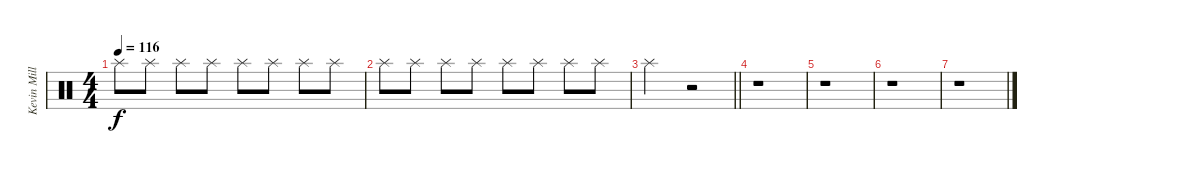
\track ("Kevin Miller (Drums)" "Kevin Mill") {instrument percussion}
\staff {score}
\articulation defaults
\ts (4 4)
\tempo 116
\clef neutral
\ks c "Splash (hit)".8{dy f} "Splash (hit)".8 "Splash (hit)".8 "Splash (hit)".8 "Splash (hit)".8 "Splash (hit)".8 "Splash (hit)".8 "Splash (hit)".8
|
"Splash (hit)".8 "Splash (hit)".8 "Splash (hit)".8 "Splash (hit)".8 "Splash (hit)".8 "Splash (hit)".8 "Splash (hit)".8 "Splash (hit)".8 |
\barLineRight lightlight "Splash (hit)".2
r.2 |
r.1 |
r.1 |
r.1 |
r.1
